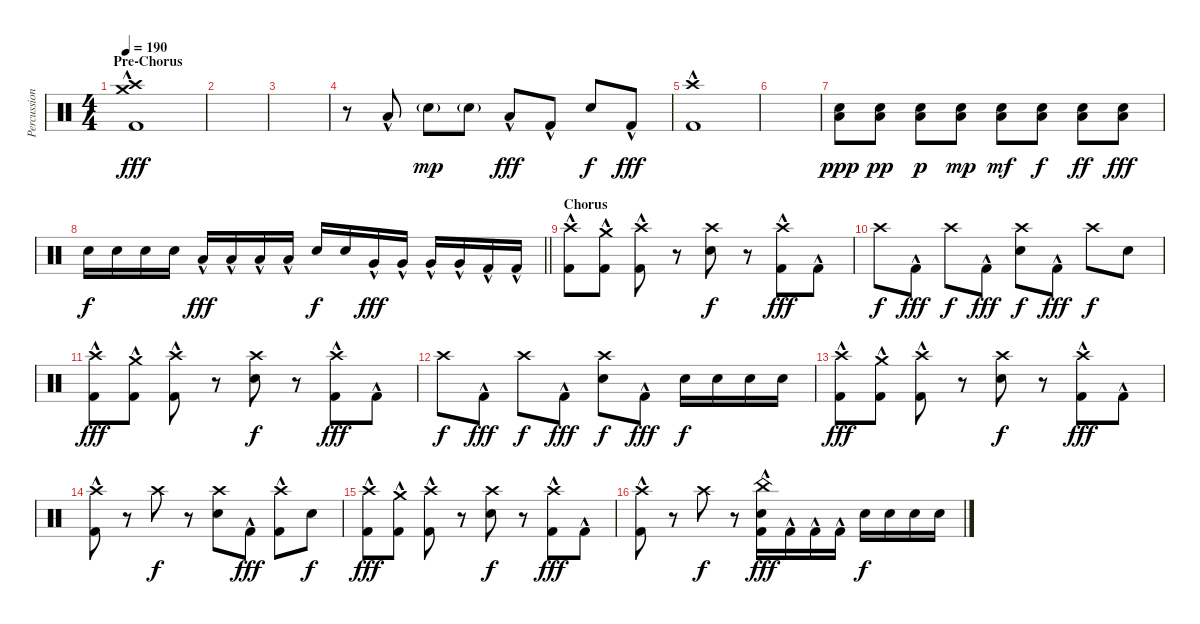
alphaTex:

\track ("Percussion" "Percussion") {instrument percussion}
\staff {score}
\articulation defaults
\ts (4 4)
\section ("" "Pre-Chorus")
\tempo 190
\clef neutral
\ks c
("Crash high (hit)" "Crash medium (hit)" "Kick (hit) 2"{hac}).1{dy fff} |
|
|
r.8 "Low Tom (hit)"{hac}.8 "Snare (hit) 2"{g}.8{dy mp} "Snare (hit) 2"{g}.8 "Low Tom (hit)"{hac}.8{dy fff} "Kick (hit) 2"{hac}.8 "Snare (hit) 2".8{dy f} "Kick (hit) 2"{hac}.8{dy fff} |
("Crash high (hit)" "Kick (hit) 2"{hac}).1 |
|
("Low Floor Tom (hit)" "Snare (hit) 2").8{dy ppp} ("Low Floor Tom (hit)" "Snare (hit) 2").8{dy pp} ("Low Floor Tom (hit)" "Snare (hit) 2").8{dy p} ("Low Floor Tom (hit)" "Snare (hit) 2").8{dy mp} ("Low Floor Tom (hit)" "Snare (hit) 2").8{dy mf} ("Low Floor Tom (hit)" "Snare (hit) 2").8{dy f} ("Low Floor Tom (hit)" "Snare (hit) 2").8{dy ff} ("Low Floor Tom (hit)" "Snare (hit) 2").8{dy fff} |
\barLineRight lightlight "Snare (hit) 2".16{dy f} "Snare (hit) 2".16 "Snare (hit) 2".16 "Snare (hit) 2".16 "Low Tom (hit)"{hac}.16{dy fff} "Low Tom (hit)"{hac}.16 "Low Tom (hit)"{hac}.16 "Low Tom (hit)"{hac}.16 "Snare (hit) 2".16{dy f} "Snare (hit) 2".16 "Very Low Tom (hit)"{hac}.16{dy fff} "Very Low Tom (hit)"{hac}.16 "Very Low Tom (hit)"{hac}.16 "Very Low Tom (hit)"{hac}.16 "Kick (hit) 2"{hac}.16 "Kick (hit) 2"{hac}.16
|
\section ("" "Chorus")
("Crash high (hit)" "Kick (hit) 2"{hac}).8 ("Crash medium (hit)" "Kick (hit) 2"{hac}).8 ("Crash high (hit)" "Kick (hit) 2"{hac}).8 r.8 ("Crash high (hit)" "Snare (hit) 2").8{dy f} r.8 ("Crash high (hit)" "Kick (hit) 2"{hac}).8{dy fff} "Kick (hit) 2"{hac}.8 |
"Crash high (hit)".8{dy f} "Kick (hit) 2"{hac}.8{dy fff} "Crash high (hit)".8{dy f} "Kick (hit) 2"{hac}.8{dy fff} ("Crash high (hit)" "Snare (hit) 2").8{dy f} "Kick (hit) 2"{hac}.8{dy fff} "Crash high (hit)".8{dy f} "Snare (hit) 2".8 |
("Crash high (hit)" "Kick (hit) 2"{hac}).8{dy fff} ("Crash medium (hit)" "Kick (hit) 2"{hac}).8 ("Crash high (hit)" "Kick (hit) 2"{hac}).8 r.8 ("Crash high (hit)" "Snare (hit) 2").8{dy f} r.8 ("Crash high (hit)" "Kick (hit) 2"{hac}).8{dy fff} "Kick (hit) 2"{hac}.8 |
"Crash high (hit)".8{dy f} "Kick (hit) 2"{hac}.8{dy fff} "Crash high (hit)".8{dy f} "Kick (hit) 2"{hac}.8{dy fff} ("Crash high (hit)" "Snare (hit) 2").8{dy f} "Kick (hit) 2"{hac}.8{dy fff} "Snare (hit) 2".16{dy f} "Snare (hit) 2".16 "Snare (hit) 2".16 "Snare (hit) 2".16 |
("Crash high (hit)" "Kick (hit) 2"{hac}).8{dy fff} ("Crash medium (hit)" "Kick (hit) 2"{hac}).8 ("Crash high (hit)" "Kick (hit) 2"{hac}).8 r.8 ("Crash high (hit)" "Snare (hit) 2").8{dy f} r.8 ("Crash high (hit)" "Kick (hit) 2"{hac}).8{dy fff} "Kick (hit) 2"{hac}.8 |
("Crash high (hit)" "Kick (hit) 2"{hac}).8 r.8 "Crash high (hit)".8{dy f} r.8 ("Crash high (hit)" "Snare (hit) 2").8 "Kick (hit) 2"{hac}.8{dy fff} ("Crash high (hit)" "Kick (hit) 2"{hac}).8 "Snare (hit) 2".8{dy f} |
("Crash high (hit)" "Kick (hit) 2"{hac}).8{dy fff} ("Crash medium (hit)" "Kick (hit) 2"{hac}).8 ("Crash high (hit)" "Kick (hit) 2"{hac}).8 r.8 ("Crash high (hit)" "Snare (hit) 2").8{dy f} r.8 ("Crash high (hit)" "Kick (hit) 2"{hac}).8{dy fff} "Kick (hit) 2"{hac}.8 |
("Crash high (hit)" "Kick (hit) 2"{hac}).8 r.8 "Crash high (hit)".8{dy f} r.8 ("China (hit)" "Snare (hit) 2" "Kick (hit) 2"{hac}).16{dy fff} "Kick (hit) 2"{hac}.16 "Kick (hit) 2"{hac}.16 "Kick (hit) 2"{hac}.16 "Snare (hit) 2".16{dy f} "Snare (hit) 2".16 "Snare (hit) 2".16 "Snare (hit) 2".16
